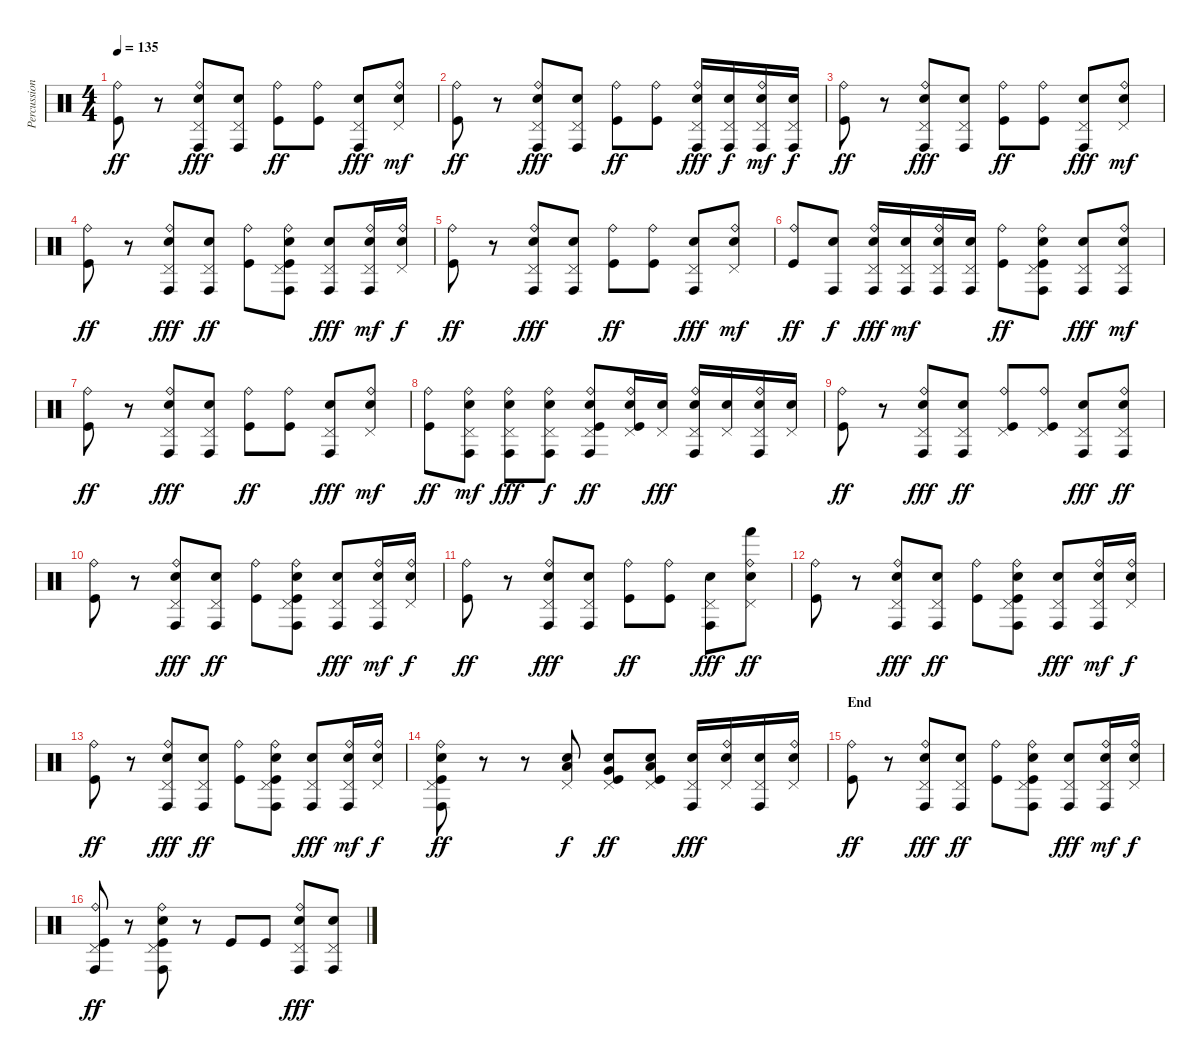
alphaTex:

\track ("Percussion" "Percussion") {instrument percussion}
\staff {score}
\articulation defaults
\ts (4 4)
\tempo 135
\clef neutral
\ks c
("Ride (bell)" "Kick (hit)").8{dy ff} r.8 ("Ride (bell)" "Pedal Hi-Hat (hit)" "Conga high (hit)" "Electric Snare (hit)").8{dy fff} ("Pedal Hi-Hat (hit)" "Conga high (hit)" "Electric Snare (hit)").8 ("Ride (bell)" "Kick (hit)").8{dy ff} ("Ride (bell)" "Kick (hit)").8 ("Pedal Hi-Hat (hit)" "Conga high (hit)" "Electric Snare (hit)").8{dy fff} ("Ride (bell)" "Pedal Hi-Hat (hit)" "Electric Snare (hit)").8{dy mf} |
("Ride (bell)" "Kick (hit)").8{dy ff} r.8 ("Ride (bell)" "Pedal Hi-Hat (hit)" "Conga high (hit)" "Electric Snare (hit)").8{dy fff} ("Pedal Hi-Hat (hit)" "Conga high (hit)" "Electric Snare (hit)").8 ("Ride (bell)" "Kick (hit)").8{dy ff} ("Ride (bell)" "Kick (hit)").8 ("Ride (bell)" "Pedal Hi-Hat (hit)" "Conga high (hit)" "Electric Snare (hit)").16{dy fff} ("Pedal Hi-Hat (hit)" "Conga high (hit)" "Electric Snare (hit)").16{dy f} ("Ride (bell)" "Pedal Hi-Hat (hit)" "Conga high (hit)" "Electric Snare (hit)").16{dy mf} ("Pedal Hi-Hat (hit)" "Conga high (hit)" "Electric Snare (hit)").16{dy f} |
("Ride (bell)" "Kick (hit)").8{dy ff} r.8 ("Ride (bell)" "Pedal Hi-Hat (hit)" "Conga high (hit)" "Electric Snare (hit)").8{dy fff} ("Pedal Hi-Hat (hit)" "Conga high (hit)" "Electric Snare (hit)").8 ("Ride (bell)" "Kick (hit)").8{dy ff} ("Ride (bell)" "Kick (hit)").8 ("Pedal Hi-Hat (hit)" "Conga high (hit)" "Electric Snare (hit)").8{dy fff} ("Ride (bell)" "Pedal Hi-Hat (hit)" "Electric Snare (hit)").8{dy mf} |
("Ride (bell)" "Kick (hit)").8{dy ff} r.8 ("Ride (bell)" "Pedal Hi-Hat (hit)" "Conga high (hit)" "Electric Snare (hit)").8{dy fff} ("Pedal Hi-Hat (hit)" "Conga high (hit)" "Electric Snare (hit)").8{dy ff} ("Ride (bell)" "Kick (hit)").8 ("Ride (bell)" "Pedal Hi-Hat (hit)" "Conga high (hit)" "Electric Snare (hit)" "Kick (hit)").8 ("Pedal Hi-Hat (hit)" "Conga high (hit)" "Electric Snare (hit)").8{dy fff} ("Ride (bell)" "Pedal Hi-Hat (hit)" "Conga high (hit)" "Electric Snare (hit)").16{dy mf} ("Pedal Hi-Hat (hit)" "Ride (bell)" "Electric Snare (hit)").16{dy f} |
("Ride (bell)" "Kick (hit)").8{dy ff} r.8 ("Ride (bell)" "Pedal Hi-Hat (hit)" "Conga high (hit)" "Electric Snare (hit)").8{dy fff} ("Pedal Hi-Hat (hit)" "Conga high (hit)" "Electric Snare (hit)").8 ("Ride (bell)" "Kick (hit)").8{dy ff} ("Ride (bell)" "Kick (hit)").8 ("Pedal Hi-Hat (hit)" "Conga high (hit)" "Electric Snare (hit)").8{dy fff} ("Ride (bell)" "Pedal Hi-Hat (hit)" "Electric Snare (hit)").8{dy mf} |
("Ride (bell)" "Kick (hit)").8{dy ff} ("Conga high (hit)" "Electric Snare (hit)").8{dy f} ("Ride (bell)" "Pedal Hi-Hat (hit)" "Conga high (hit)" "Electric Snare (hit)").16{dy fff} ("Pedal Hi-Hat (hit)" "Conga high (hit)" "Electric Snare (hit)").16{dy mf} ("Ride (bell)" "Pedal Hi-Hat (hit)" "Conga high (hit)" "Electric Snare (hit)").16 ("Pedal Hi-Hat (hit)" "Conga high (hit)" "Electric Snare (hit)").16 ("Ride (bell)" "Kick (hit)").8{dy ff} ("Ride (bell)" "Pedal Hi-Hat (hit)" "Conga high (hit)" "Electric Snare (hit)" "Kick (hit)").8 ("Pedal Hi-Hat (hit)" "Conga high (hit)" "Electric Snare (hit)").8{dy fff} ("Ride (bell)" "Pedal Hi-Hat (hit)" "Conga high (hit)" "Electric Snare (hit)").8{dy mf} |
("Ride (bell)" "Kick (hit)").8{dy ff} r.8 ("Ride (bell)" "Pedal Hi-Hat (hit)" "Conga high (hit)" "Electric Snare (hit)").8{dy fff} ("Pedal Hi-Hat (hit)" "Conga high (hit)" "Electric Snare (hit)").8 ("Ride (bell)" "Kick (hit)").8{dy ff} ("Ride (bell)" "Kick (hit)").8 ("Pedal Hi-Hat (hit)" "Conga high (hit)" "Electric Snare (hit)").8{dy fff} ("Ride (bell)" "Pedal Hi-Hat (hit)" "Electric Snare (hit)").8{dy mf} |
("Ride (bell)" "Kick (hit)").8{dy ff} ("Ride (bell)" "Pedal Hi-Hat (hit)" "Conga high (hit)" "Electric Snare (hit)").8{dy mf} ("Ride (bell)" "Pedal Hi-Hat (hit)" "Conga high (hit)" "Electric Snare (hit)").8{dy fff} ("Ride (bell)" "Pedal Hi-Hat (hit)" "Conga high (hit)" "Electric Snare (hit)").8{dy f} ("Ride (bell)" "Pedal Hi-Hat (hit)" "Conga high (hit)" "Electric Snare (hit)" "Kick (hit)").8{dy ff} ("Ride (bell)" "Pedal Hi-Hat (hit)" "Electric Snare (hit)" "Kick (hit)").16 ("Pedal Hi-Hat (hit)" "Electric Snare (hit)").16{dy fff} ("Ride (bell)" "Pedal Hi-Hat (hit)" "Conga high (hit)" "Electric Snare (hit)").16 ("Pedal Hi-Hat (hit)" "Electric Snare (hit)").16 ("Ride (bell)" "Pedal Hi-Hat (hit)" "Conga high (hit)" "Electric Snare (hit)").16 ("Pedal Hi-Hat (hit)" "Electric Snare (hit)").16 |
("Ride (bell)" "Kick (hit)").8{dy ff} r.8 ("Ride (bell)" "Pedal Hi-Hat (hit)" "Conga high (hit)" "Electric Snare (hit)").8{dy fff} ("Pedal Hi-Hat (hit)" "Conga high (hit)" "Electric Snare (hit)").8{dy ff} ("Ride (bell)" "Pedal Hi-Hat (hit)" "Kick (hit)").8 ("Ride (bell)" "Pedal Hi-Hat (hit)" "Kick (hit)").8 ("Pedal Hi-Hat (hit)" "Conga high (hit)" "Electric Snare (hit)").8{dy fff} ("Ride (bell)" "Pedal Hi-Hat (hit)" "Conga high (hit)" "Electric Snare (hit)").8{dy ff} |
("Ride (bell)" "Kick (hit)").8 r.8 ("Ride (bell)" "Pedal Hi-Hat (hit)" "Conga high (hit)" "Electric Snare (hit)").8{dy fff} ("Pedal Hi-Hat (hit)" "Conga high (hit)" "Electric Snare (hit)").8{dy ff} ("Ride (bell)" "Kick (hit)").8 ("Ride (bell)" "Pedal Hi-Hat (hit)" "Conga high (hit)" "Electric Snare (hit)" "Kick (hit)").8 ("Pedal Hi-Hat (hit)" "Conga high (hit)" "Electric Snare (hit)").8{dy fff} ("Ride (bell)" "Pedal Hi-Hat (hit)" "Conga high (hit)" "Electric Snare (hit)").16{dy mf} ("Pedal Hi-Hat (hit)" "Ride (bell)" "Electric Snare (hit)").16{dy f} |
("Ride (bell)" "Kick (hit)").8{dy ff} r.8 ("Ride (bell)" "Pedal Hi-Hat (hit)" "Conga high (hit)" "Electric Snare (hit)").8{dy fff} ("Pedal Hi-Hat (hit)" "Conga high (hit)" "Electric Snare (hit)").8 ("Ride (bell)" "Kick (hit)").8{dy ff} ("Ride (bell)" "Kick (hit)").8 ("Pedal Hi-Hat (hit)" "Conga high (hit)" "Electric Snare (hit)").8{dy fff} ("Ride (bell)" "Pedal Hi-Hat (hit)" "Hand (hit)" "Electric Snare (hit)").8{dy ff} |
("Ride (bell)" "Kick (hit)").8 r.8 ("Ride (bell)" "Pedal Hi-Hat (hit)" "Conga high (hit)" "Electric Snare (hit)").8{dy fff} ("Pedal Hi-Hat (hit)" "Conga high (hit)" "Electric Snare (hit)").8{dy ff} ("Ride (bell)" "Kick (hit)").8 ("Ride (bell)" "Pedal Hi-Hat (hit)" "Conga high (hit)" "Electric Snare (hit)" "Kick (hit)").8 ("Pedal Hi-Hat (hit)" "Conga high (hit)" "Electric Snare (hit)").8{dy fff} ("Ride (bell)" "Pedal Hi-Hat (hit)" "Conga high (hit)" "Electric Snare (hit)").16{dy mf} ("Pedal Hi-Hat (hit)" "Ride (bell)" "Electric Snare (hit)").16{dy f} |
("Ride (bell)" "Kick (hit)").8{dy ff} r.8 ("Ride (bell)" "Pedal Hi-Hat (hit)" "Conga high (hit)" "Electric Snare (hit)").8{dy fff} ("Pedal Hi-Hat (hit)" "Conga high (hit)" "Electric Snare (hit)").8{dy ff} ("Ride (bell)" "Kick (hit)").8 ("Ride (bell)" "Pedal Hi-Hat (hit)" "Conga high (hit)" "Electric Snare (hit)" "Kick (hit)").8 ("Pedal Hi-Hat (hit)" "Conga high (hit)" "Electric Snare (hit)").8{dy fff} ("Ride (bell)" "Pedal Hi-Hat (hit)" "Conga high (hit)" "Electric Snare (hit)").16{dy mf} ("Pedal Hi-Hat (hit)" "Ride (bell)" "Electric Snare (hit)").16{dy f} |
("Ride (bell)" "Pedal Hi-Hat (hit)" "Conga high (hit)" "Electric Snare (hit)" "Kick (hit)").8{dy ff} r.8 r.8 ("Pedal Hi-Hat (hit)" "Low Floor Tom (hit)" "Electric Snare (hit)").8{dy f} ("Pedal Hi-Hat (hit)" "Very Low Tom (hit)" "Electric Snare (hit)" "Kick (hit)").8{dy ff} ("Pedal Hi-Hat (hit)" "Low Tom (hit)" "Electric Snare (hit)" "Kick (hit)").8 ("Pedal Hi-Hat (hit)" "Conga high (hit)" "Electric Snare (hit)").16{dy fff} ("Ride (bell)" "Pedal Hi-Hat (hit)" "Electric Snare (hit)").16 ("Pedal Hi-Hat (hit)" "Conga high (hit)" "Electric Snare (hit)").16 ("Ride (bell)" "Pedal Hi-Hat (hit)" "Electric Snare (hit)").16 |
\section ("" "End")
("Ride (bell)" "Kick (hit)").8{dy ff} r.8 ("Ride (bell)" "Pedal Hi-Hat (hit)" "Conga high (hit)" "Electric Snare (hit)").8{dy fff} ("Pedal Hi-Hat (hit)" "Conga high (hit)" "Electric Snare (hit)").8{dy ff} ("Ride (bell)" "Kick (hit)").8 ("Ride (bell)" "Pedal Hi-Hat (hit)" "Conga high (hit)" "Electric Snare (hit)" "Kick (hit)").8 ("Pedal Hi-Hat (hit)" "Conga high (hit)" "Electric Snare (hit)").8{dy fff} ("Ride (bell)" "Pedal Hi-Hat (hit)" "Conga high (hit)" "Electric Snare (hit)").16{dy mf} ("Pedal Hi-Hat (hit)" "Ride (bell)" "Electric Snare (hit)").16{dy f} |
("Ride (bell)" "Pedal Hi-Hat (hit)" "Conga high (hit)" "Kick (hit)").8{dy ff} r.8 ("Ride (bell)" "Pedal Hi-Hat (hit)" "Conga high (hit)" "Electric Snare (hit)" "Kick (hit)").8 r.8 "Kick (hit)".8 "Kick (hit)".8 ("Ride (bell)" "Pedal Hi-Hat (hit)" "Conga high (hit)" "Electric Snare (hit)").8{dy fff} ("Pedal Hi-Hat (hit)" "Conga high (hit)" "Electric Snare (hit)").8
